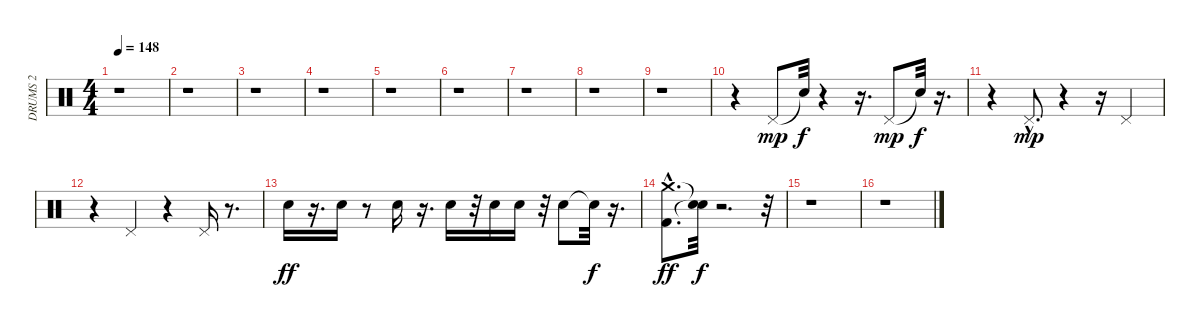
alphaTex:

\track ("DRUMS 2" "DRUMS 2") {instrument percussion}
\staff {score}
\articulation defaults
\ts (4 4)
\tempo 148
\clef neutral
\ks c
r.1{dy mp} |
r.1 |
r.1 |
r.1 |
r.1 |
r.1 |
r.1 |
r.1 |
r.1 |
r.4 "Pedal Hi-Hat (hit)".8 "Snare (hit)"{t}.32{dy f} r.4 r.16{d} "Pedal Hi-Hat (hit)".8{dy mp} "Snare (hit)"{t}.32{dy f} r.16{d} |
r.4 "Pedal Hi-Hat (hit)"{hac}.8{d dy mp} r.4 r.16 "Pedal Hi-Hat (hit)".4 |
r.4 "Pedal Hi-Hat (hit)".4 r.4 "Pedal Hi-Hat (hit)".16{volume 12} r.8{d} |
"Snare (hit) 2".16{dy ff} r.16{d} "Snare (hit) 2".16 r.8 "Snare (hit) 2".16 r.16{d} "Snare (hit) 2".16 r.32 "Snare (hit) 2".16 "Snare (hit) 2".16 r.32 "Snare (hit) 2".8 "Snare (hit)"{t}.32{dy f} r.16{d} |
("Kick (hit) 2"{hac} "Crash medium (hit)"{hac}).8{d dy ff} ("Snare (hit)"{t} "Snare (hit)"{t}).32{dy f} r.2{d} r.32 |
r.1 |
r.1
